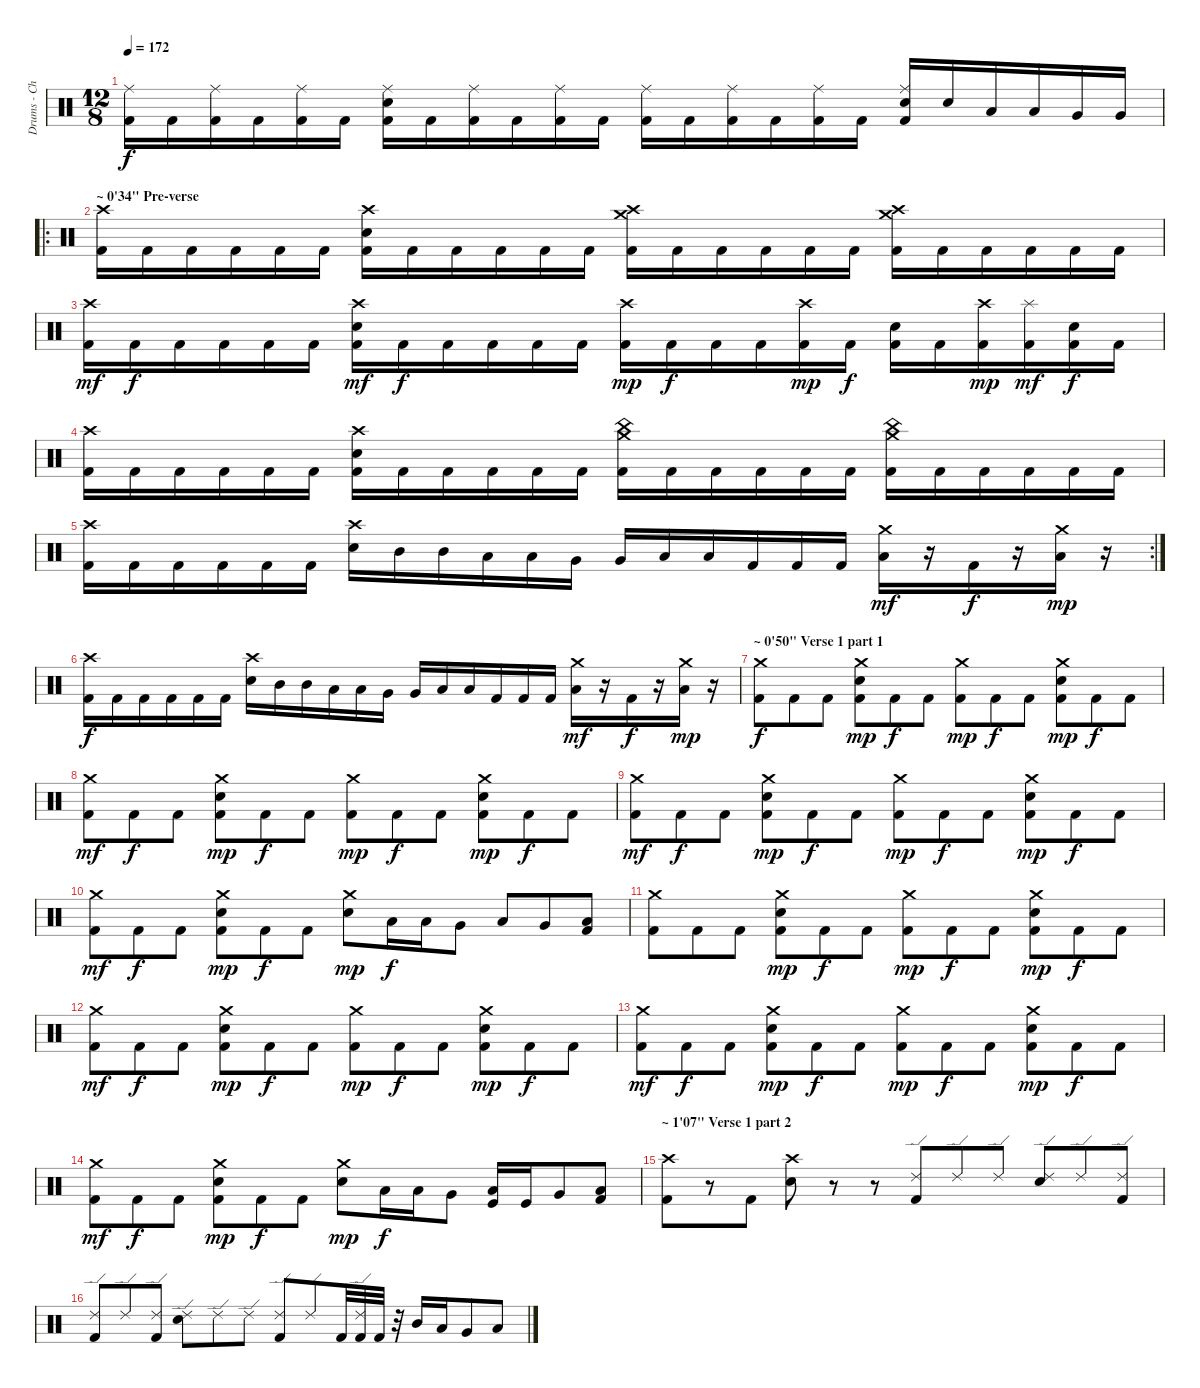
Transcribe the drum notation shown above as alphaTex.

\track ("Drums - Christopher Merzinsky" "Drums - Ch") {instrument percussion}
\staff {score}
\articulation defaults
\ts (12 8)
\tempo 172
\clef neutral
\ks c
("Kick (hit) 2" "Ride (middle)").16{dy f} "Kick (hit) 2".16 ("Kick (hit) 2" "Ride (middle)").16 "Kick (hit) 2".16 ("Kick (hit) 2" "Ride (middle)").16 "Kick (hit) 2".16 ("Kick (hit) 2" "Electric Snare (hit)" "Ride (middle)").16 "Kick (hit) 2".16 ("Kick (hit) 2" "Ride (middle)").16 "Kick (hit) 2".16 ("Kick (hit) 2" "Ride (middle)").16 "Kick (hit) 2".16 ("Kick (hit) 2" "Ride (middle)").16 "Kick (hit) 2".16 ("Kick (hit) 2" "Ride (middle)").16 "Kick (hit) 2".16 ("Kick (hit) 2" "Ride (middle)").16 "Kick (hit) 2".16 ("Kick (hit) 2" "Electric Snare (hit)" "Ride (middle)").16 "Electric Snare (hit)".16 "Low Tom (hit)".16 "Low Tom (hit)".16 "Very Low Tom (hit)".16 "Very Low Tom (hit)".16 |
\ro
\section ("" "~ 0'34\" Pre-verse")
("Crash high (hit)" "Kick (hit) 2").16 "Kick (hit) 2".16 "Kick (hit) 2".16 "Kick (hit) 2".16 "Kick (hit) 2".16 "Kick (hit) 2".16 ("Electric Snare (hit)" "Crash high (hit)" "Kick (hit) 2").16 "Kick (hit) 2".16 "Kick (hit) 2".16 "Kick (hit) 2".16 "Kick (hit) 2".16 "Kick (hit) 2".16 ("Crash medium (hit)" "Crash high (hit)" "Kick (hit) 2").16 "Kick (hit) 2".16 "Kick (hit) 2".16 "Kick (hit) 2".16 "Kick (hit) 2".16 "Kick (hit) 2".16 ("Crash medium (hit)" "Kick (hit) 2" "Crash high (hit)").16 "Kick (hit) 2".16 "Kick (hit) 2".16 "Kick (hit) 2".16 "Kick (hit) 2".16 "Kick (hit) 2".16 |
("Kick (hit) 2" "Crash high (hit)").16{dy mf} "Kick (hit) 2".16{dy f} "Kick (hit) 2".16 "Kick (hit) 2".16 "Kick (hit) 2".16 "Kick (hit) 2".16 ("Kick (hit) 2" "Electric Snare (hit)" "Crash high (hit)").16{dy mf} "Kick (hit) 2".16{dy f} "Kick (hit) 2".16 "Kick (hit) 2".16 "Kick (hit) 2".16 "Kick (hit) 2".16 ("Kick (hit) 2" "Crash high (hit)").16{dy mp} "Kick (hit) 2".16{dy f} "Kick (hit) 2".16 "Kick (hit) 2".16 ("Kick (hit) 2" "Crash high (hit)").16{dy mp} "Kick (hit) 2".16{dy f} ("Kick (hit) 2" "Electric Snare (hit)").16 "Kick (hit) 2".16 ("Kick (hit) 2" "Crash high (hit)").16{dy mp} ("Kick (hit) 2" "Splash (hit)").16{dy mf} ("Kick (hit) 2" "Electric Snare (hit)").16{dy f} "Kick (hit) 2".16 |
("Crash high (hit)" "Kick (hit) 2").16 "Kick (hit) 2".16 "Kick (hit) 2".16 "Kick (hit) 2".16 "Kick (hit) 2".16 "Kick (hit) 2".16 ("Electric Snare (hit)" "Crash high (hit)" "Kick (hit) 2").16 "Kick (hit) 2".16 "Kick (hit) 2".16 "Kick (hit) 2".16 "Kick (hit) 2".16 "Kick (hit) 2".16 ("China (hit)" "Crash medium (hit)" "Kick (hit) 2").16 "Kick (hit) 2".16 "Kick (hit) 2".16 "Kick (hit) 2".16 "Kick (hit) 2".16 "Kick (hit) 2".16 ("China (hit)" "Crash medium (hit)" "Kick (hit) 2").16 "Kick (hit) 2".16 "Kick (hit) 2".16 "Kick (hit) 2".16 "Kick (hit) 2".16 "Kick (hit) 2".16 |
\rc 2
("Crash high (hit)" "Kick (hit) 2").16 "Kick (hit) 2".16 "Kick (hit) 2".16 "Kick (hit) 2".16 "Kick (hit) 2".16 "Kick (hit) 2".16 ("Electric Snare (hit)" "Crash high (hit)").16 "Mid Tom (hit)".16 "Mid Tom (hit)".16 "Low Tom (hit)".16 "Low Tom (hit)".16 "Very Low Tom (hit)".16 "Very Low Tom (hit)".16 "Low Floor Tom (hit)".16 "Low Floor Tom (hit)".16 "Kick (hit) 2".16 "Kick (hit) 2".16 "Kick (hit) 2".16 ("Crash medium (hit)" "Low Floor Tom (hit)").16{dy mf} r.16 "Kick (hit) 2".16{dy f} r.16 ("Crash medium (hit)" "Low Floor Tom (hit)").16{dy mp} r.16 |
("Crash high (hit)" "Kick (hit) 2").16{dy f} "Kick (hit) 2".16 "Kick (hit) 2".16 "Kick (hit) 2".16 "Kick (hit) 2".16 "Kick (hit) 2".16 ("Electric Snare (hit)" "Crash high (hit)").16 "Mid Tom (hit)".16 "Mid Tom (hit)".16 "Low Tom (hit)".16 "Low Tom (hit)".16 "Very Low Tom (hit)".16 "Very Low Tom (hit)".16 "Low Floor Tom (hit)".16 "Low Floor Tom (hit)".16 "Kick (hit) 2".16 "Kick (hit) 2".16 "Kick (hit) 2".16 ("Crash medium (hit)" "Low Floor Tom (hit)").16{dy mf} r.16 "Kick (hit) 2".16{dy f} r.16 ("Crash medium (hit)" "Low Floor Tom (hit)").16{dy mp} r.16 |
\section ("" "~ 0'50\" Verse 1 part 1")
("Kick (hit) 2" "Crash medium (hit)").8{dy f} "Kick (hit) 2".8 "Kick (hit) 2".8 ("Electric Snare (hit)" "Kick (hit) 2" "Crash medium (hit)").8{dy mp} "Kick (hit) 2".8{dy f} "Kick (hit) 2".8 ("Kick (hit) 2" "Crash medium (hit)").8{dy mp} "Kick (hit) 2".8{dy f} "Kick (hit) 2".8 ("Kick (hit) 2" "Electric Snare (hit)" "Crash medium (hit)").8{dy mp} "Kick (hit) 2".8{dy f} "Kick (hit) 2".8 |
("Kick (hit) 2" "Crash medium (hit)").8{dy mf} "Kick (hit) 2".8{dy f} "Kick (hit) 2".8 ("Electric Snare (hit)" "Kick (hit) 2" "Crash medium (hit)").8{dy mp} "Kick (hit) 2".8{dy f} "Kick (hit) 2".8 ("Kick (hit) 2" "Crash medium (hit)").8{dy mp} "Kick (hit) 2".8{dy f} "Kick (hit) 2".8 ("Kick (hit) 2" "Electric Snare (hit)" "Crash medium (hit)").8{dy mp} "Kick (hit) 2".8{dy f} "Kick (hit) 2".8 |
("Kick (hit) 2" "Crash medium (hit)").8{dy mf} "Kick (hit) 2".8{dy f} "Kick (hit) 2".8 ("Electric Snare (hit)" "Kick (hit) 2" "Crash medium (hit)").8{dy mp} "Kick (hit) 2".8{dy f} "Kick (hit) 2".8 ("Kick (hit) 2" "Crash medium (hit)").8{dy mp} "Kick (hit) 2".8{dy f} "Kick (hit) 2".8 ("Kick (hit) 2" "Electric Snare (hit)" "Crash medium (hit)").8{dy mp} "Kick (hit) 2".8{dy f} "Kick (hit) 2".8 |
("Kick (hit) 2" "Crash medium (hit)").8{dy mf} "Kick (hit) 2".8{dy f} "Kick (hit) 2".8 ("Electric Snare (hit)" "Kick (hit) 2" "Crash medium (hit)").8{dy mp} "Kick (hit) 2".8{dy f} "Kick (hit) 2".8 ("Electric Snare (hit)" "Crash medium (hit)").8{dy mp} "Low Tom (hit)".16{dy f} "Low Tom (hit)".16 "Very Low Tom (hit)".8 "Low Tom (hit)".8 "Very Low Tom (hit)".8 ("Low Floor Tom (hit)" "Kick (hit) 2").8 |
("Kick (hit) 2" "Crash medium (hit)").8 "Kick (hit) 2".8 "Kick (hit) 2".8 ("Electric Snare (hit)" "Kick (hit) 2" "Crash medium (hit)").8{dy mp} "Kick (hit) 2".8{dy f} "Kick (hit) 2".8 ("Kick (hit) 2" "Crash medium (hit)").8{dy mp} "Kick (hit) 2".8{dy f} "Kick (hit) 2".8 ("Kick (hit) 2" "Electric Snare (hit)" "Crash medium (hit)").8{dy mp} "Kick (hit) 2".8{dy f} "Kick (hit) 2".8 |
("Kick (hit) 2" "Crash medium (hit)").8{dy mf} "Kick (hit) 2".8{dy f} "Kick (hit) 2".8 ("Electric Snare (hit)" "Kick (hit) 2" "Crash medium (hit)").8{dy mp} "Kick (hit) 2".8{dy f} "Kick (hit) 2".8 ("Kick (hit) 2" "Crash medium (hit)").8{dy mp} "Kick (hit) 2".8{dy f} "Kick (hit) 2".8 ("Kick (hit) 2" "Electric Snare (hit)" "Crash medium (hit)").8{dy mp} "Kick (hit) 2".8{dy f} "Kick (hit) 2".8 |
("Kick (hit) 2" "Crash medium (hit)").8{dy mf} "Kick (hit) 2".8{dy f} "Kick (hit) 2".8 ("Electric Snare (hit)" "Kick (hit) 2" "Crash medium (hit)").8{dy mp} "Kick (hit) 2".8{dy f} "Kick (hit) 2".8 ("Kick (hit) 2" "Crash medium (hit)").8{dy mp} "Kick (hit) 2".8{dy f} "Kick (hit) 2".8 ("Kick (hit) 2" "Electric Snare (hit)" "Crash medium (hit)").8{dy mp} "Kick (hit) 2".8{dy f} "Kick (hit) 2".8 |
("Kick (hit) 2" "Crash medium (hit)").8{dy mf} "Kick (hit) 2".8{dy f} "Kick (hit) 2".8 ("Electric Snare (hit)" "Kick (hit) 2" "Crash medium (hit)").8{dy mp} "Kick (hit) 2".8{dy f} "Kick (hit) 2".8 ("Electric Snare (hit)" "Crash medium (hit)").8{dy mp} "Low Tom (hit)".16{dy f} "Low Tom (hit)".16 "Very Low Tom (hit)".8 ("Low Tom (hit)" "Kick (hit)").16 "Kick (hit)".16 "Very Low Tom (hit)".8 ("Low Floor Tom (hit)" "Kick (hit) 2").8 |
\section ("" "~ 1'07\" Verse 1 part 2")
("Crash high (hit)" "Kick (hit) 2").8 r.8 "Kick (hit) 2".8 ("Crash high (hit)" "Electric Snare (hit)").8 r.8 r.8 ("Kick (hit) 2" "Ride (edge) 2").8 "Ride (edge) 2".8 "Ride (edge) 2".8 ("Electric Snare (hit)" "Ride (edge) 2").8 "Ride (edge) 2".8 ("Kick (hit) 2" "Ride (edge) 2").8 |
("Kick (hit) 2" "Ride (edge) 2").8 "Ride (edge) 2".8 ("Kick (hit) 2" "Ride (edge) 2").8 ("Electric Snare (hit)" "Ride (edge) 2").8 "Ride (edge) 2".8 "Ride (edge) 2".8 ("Kick (hit) 2" "Ride (edge) 2").8 "Ride (edge) 2".8 "Kick (hit) 2".32 ("Ride (edge) 2" "Kick (hit) 2").32 "Kick (hit) 2".32 r.32 "Mid Tom (hit)".16 "Low Tom (hit)".16 "Very Low Tom (hit)".8 "Low Floor Tom (hit)".8
